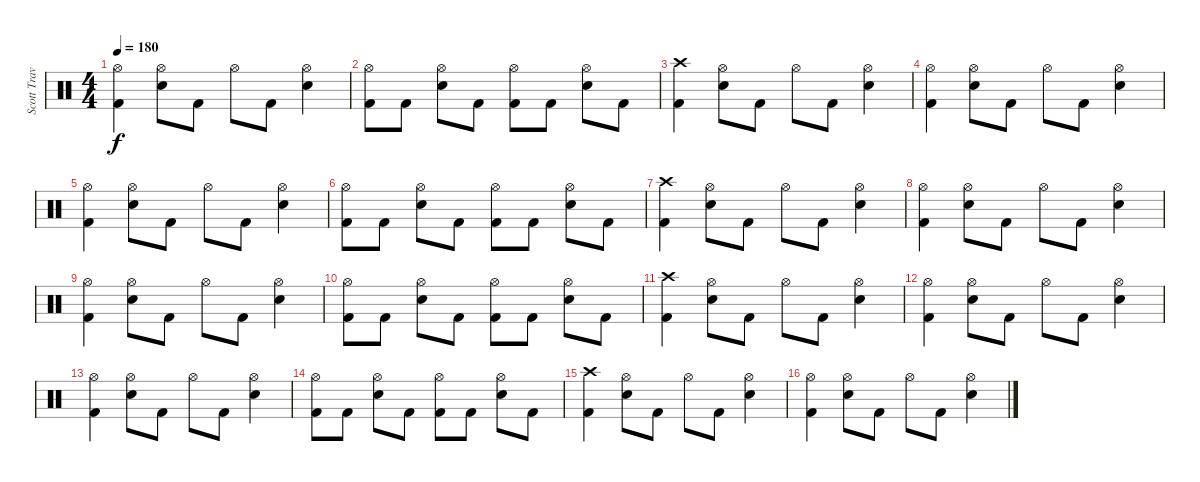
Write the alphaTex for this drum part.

\track ("Scott Travis" "Scott Trav") {instrument percussion}
\staff {score}
\articulation defaults
\ts (4 4)
\tempo 180
\clef neutral
\ks c
("Hi-Hat (open)" "Kick (hit) 2").4{dy f} ("Hi-Hat (open)" "Snare (hit) 2").8 "Kick (hit) 2".8 "Hi-Hat (open)".8 "Kick (hit) 2".8 ("Hi-Hat (open)" "Snare (hit) 2").4 |
("Hi-Hat (open)" "Kick (hit) 2").8 "Kick (hit) 2".8 ("Hi-Hat (open)" "Snare (hit) 2").8 "Kick (hit) 2".8 ("Hi-Hat (open)" "Kick (hit) 2").8 "Kick (hit) 2".8 ("Hi-Hat (open)" "Snare (hit) 2").8 "Kick (hit) 2".8 |
("Crash high (hit)" "Kick (hit) 2").4 ("Hi-Hat (open)" "Snare (hit) 2").8 "Kick (hit) 2".8 "Hi-Hat (open)".8 "Kick (hit) 2".8 ("Hi-Hat (open)" "Snare (hit) 2").4 |
("Hi-Hat (open)" "Kick (hit) 2").4 ("Hi-Hat (open)" "Snare (hit) 2").8 "Kick (hit) 2".8 "Hi-Hat (open)".8 "Kick (hit) 2".8 ("Hi-Hat (open)" "Snare (hit) 2").4 |
("Hi-Hat (open)" "Kick (hit) 2").4 ("Hi-Hat (open)" "Snare (hit) 2").8 "Kick (hit) 2".8 "Hi-Hat (open)".8 "Kick (hit) 2".8 ("Hi-Hat (open)" "Snare (hit) 2").4 |
("Hi-Hat (open)" "Kick (hit) 2").8 "Kick (hit) 2".8 ("Hi-Hat (open)" "Snare (hit) 2").8 "Kick (hit) 2".8 ("Hi-Hat (open)" "Kick (hit) 2").8 "Kick (hit) 2".8 ("Hi-Hat (open)" "Snare (hit) 2").8 "Kick (hit) 2".8 |
("Crash high (hit)" "Kick (hit) 2").4 ("Hi-Hat (open)" "Snare (hit) 2").8 "Kick (hit) 2".8 "Hi-Hat (open)".8 "Kick (hit) 2".8 ("Hi-Hat (open)" "Snare (hit) 2").4 |
("Hi-Hat (open)" "Kick (hit) 2").4 ("Hi-Hat (open)" "Snare (hit) 2").8 "Kick (hit) 2".8 "Hi-Hat (open)".8 "Kick (hit) 2".8 ("Hi-Hat (open)" "Snare (hit) 2").4 |
("Hi-Hat (open)" "Kick (hit) 2").4 ("Hi-Hat (open)" "Snare (hit) 2").8 "Kick (hit) 2".8 "Hi-Hat (open)".8 "Kick (hit) 2".8 ("Hi-Hat (open)" "Snare (hit) 2").4 |
("Hi-Hat (open)" "Kick (hit) 2").8 "Kick (hit) 2".8 ("Hi-Hat (open)" "Snare (hit) 2").8 "Kick (hit) 2".8 ("Hi-Hat (open)" "Kick (hit) 2").8 "Kick (hit) 2".8 ("Hi-Hat (open)" "Snare (hit) 2").8 "Kick (hit) 2".8 |
("Crash high (hit)" "Kick (hit) 2").4 ("Hi-Hat (open)" "Snare (hit) 2").8 "Kick (hit) 2".8 "Hi-Hat (open)".8 "Kick (hit) 2".8 ("Hi-Hat (open)" "Snare (hit) 2").4 |
("Hi-Hat (open)" "Kick (hit) 2").4 ("Hi-Hat (open)" "Snare (hit) 2").8 "Kick (hit) 2".8 "Hi-Hat (open)".8 "Kick (hit) 2".8 ("Hi-Hat (open)" "Snare (hit) 2").4 |
("Hi-Hat (open)" "Kick (hit) 2").4 ("Hi-Hat (open)" "Snare (hit) 2").8 "Kick (hit) 2".8 "Hi-Hat (open)".8 "Kick (hit) 2".8 ("Hi-Hat (open)" "Snare (hit) 2").4 |
("Hi-Hat (open)" "Kick (hit) 2").8 "Kick (hit) 2".8 ("Hi-Hat (open)" "Snare (hit) 2").8 "Kick (hit) 2".8 ("Hi-Hat (open)" "Kick (hit) 2").8 "Kick (hit) 2".8 ("Hi-Hat (open)" "Snare (hit) 2").8 "Kick (hit) 2".8 |
("Crash high (hit)" "Kick (hit) 2").4 ("Hi-Hat (open)" "Snare (hit) 2").8 "Kick (hit) 2".8 "Hi-Hat (open)".8 "Kick (hit) 2".8 ("Hi-Hat (open)" "Snare (hit) 2").4 |
("Hi-Hat (open)" "Kick (hit) 2").4 ("Hi-Hat (open)" "Snare (hit) 2").8 "Kick (hit) 2".8 "Hi-Hat (open)".8 "Kick (hit) 2".8 ("Hi-Hat (open)" "Snare (hit) 2").4
